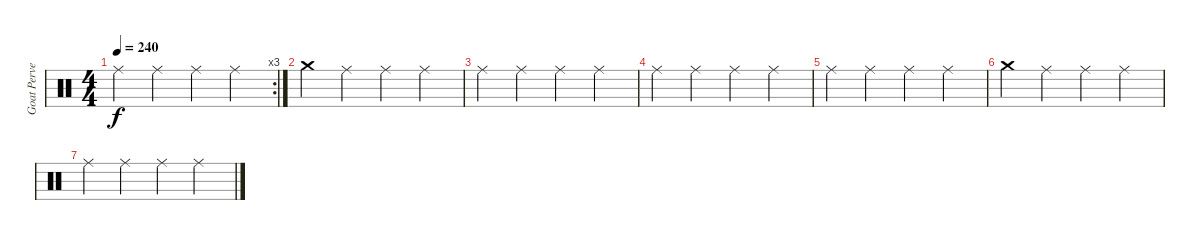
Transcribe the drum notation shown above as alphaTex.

\track ("Goat Pervertor2" "Goat Perve") {instrument percussion}
\staff {score}
\articulation defaults
\rc 3
\ts (4 4)
\tempo 240
\clef neutral
\ks c "Ride (middle)".4{dy f} "Ride (middle)".4 "Ride (middle)".4 "Ride (middle)".4
|
"Crash medium (hit)".4 "Ride (middle)".4 "Ride (middle)".4 "Ride (middle)".4 |
"Ride (middle)".4 "Ride (middle)".4 "Ride (middle)".4 "Ride (middle)".4 |
"Ride (middle)".4 "Ride (middle)".4 "Ride (middle)".4 "Ride (middle)".4 |
"Ride (middle)".4 "Ride (middle)".4 "Ride (middle)".4 "Ride (middle)".4 |
"Crash medium (hit)".4 "Ride (middle)".4 "Ride (middle)".4 "Ride (middle)".4 |
"Ride (middle)".4 "Ride (middle)".4 "Ride (middle)".4 "Ride (middle)".4
